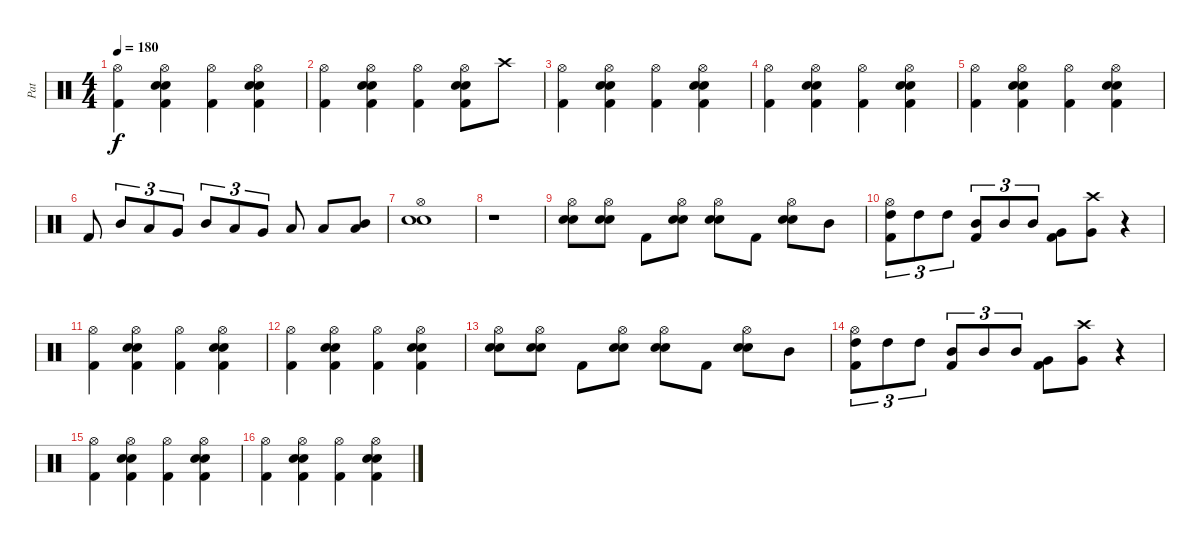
\track ("Pat" "Pat") {instrument percussion}
\staff {score}
\articulation defaults
\ts (4 4)
\tempo 180
\clef neutral
\ks c
("Hi-Hat (open)" "Kick (hit) 2").4{dy f} ("Hi-Hat (open)" "Snare (hit) 2" "Electric Snare (hit)" "Kick (hit) 2").4 ("Hi-Hat (open)" "Kick (hit) 2").4 ("Hi-Hat (open)" "Snare (hit) 2" "Electric Snare (hit)" "Kick (hit) 2").4 |
("Hi-Hat (open)" "Kick (hit) 2").4 ("Hi-Hat (open)" "Snare (hit) 2" "Electric Snare (hit)" "Kick (hit) 2").4 ("Hi-Hat (open)" "Kick (hit) 2").4 ("Hi-Hat (open)" "Snare (hit) 2" "Electric Snare (hit)" "Kick (hit) 2").8 "Crash high (hit)".8 |
("Hi-Hat (open)" "Kick (hit) 2").4 ("Hi-Hat (open)" "Snare (hit) 2" "Electric Snare (hit)" "Kick (hit) 2").4 ("Hi-Hat (open)" "Kick (hit) 2").4 ("Hi-Hat (open)" "Snare (hit) 2" "Electric Snare (hit)" "Kick (hit) 2").4 |
("Hi-Hat (open)" "Kick (hit) 2").4 ("Hi-Hat (open)" "Snare (hit) 2" "Electric Snare (hit)" "Kick (hit) 2").4 ("Hi-Hat (open)" "Kick (hit) 2").4 ("Hi-Hat (open)" "Snare (hit) 2" "Electric Snare (hit)" "Kick (hit) 2").4 |
("Hi-Hat (open)" "Kick (hit) 2").4 ("Hi-Hat (open)" "Snare (hit) 2" "Electric Snare (hit)" "Kick (hit) 2").4 ("Hi-Hat (open)" "Kick (hit) 2").4 ("Hi-Hat (open)" "Snare (hit) 2" "Electric Snare (hit)" "Kick (hit) 2").4 |
"Kick (hit) 2".8 "Mid Tom (hit)".8{tu (3 2)} "Low Tom (hit)".8{tu (3 2)} "Very Low Tom (hit)".8{tu (3 2)} "Mid Tom (hit)".8{tu (3 2)} "Low Tom (hit)".8{tu (3 2)} "Very Low Tom (hit)".8{tu (3 2)} "Low Tom (hit)".8 "Low Tom (hit)".8 ("Mid Tom (hit)" "Low Tom (hit)").8 |
("Snare (hit) 2" "Electric Snare (hit)" "Hi-Hat (open)").1 |
r.1 |
("Snare (hit) 2" "Electric Snare (hit)" "Hi-Hat (open)").8 ("Snare (hit) 2" "Electric Snare (hit)" "Hi-Hat (open)").8 "Kick (hit) 2".8 ("Snare (hit) 2" "Electric Snare (hit)" "Hi-Hat (open)").8 ("Snare (hit) 2" "Electric Snare (hit)" "Hi-Hat (open)").8 "Kick (hit) 2".8 ("Snare (hit) 2" "Electric Snare (hit)" "Hi-Hat (open)").8 "Mid Tom (hit)".8 |
("High Tom (hit)" "Hi-Hat (open)" "Kick (hit) 2").8{tu (3 2)} "High Tom (hit)".8{tu (3 2)} "High Tom (hit)".8{tu (3 2)} ("Mid Tom (hit)" "Kick (hit) 2").8{tu (3 2)} "Mid Tom (hit)".8{tu (3 2)} "Mid Tom (hit)".8{tu (3 2)} ("Very Low Tom (hit)" "Kick (hit) 2").8 ("Crash high (hit)" "Very Low Tom (hit)").8 r.4 |
("Hi-Hat (open)" "Kick (hit) 2").4 ("Hi-Hat (open)" "Snare (hit) 2" "Electric Snare (hit)" "Kick (hit) 2").4 ("Hi-Hat (open)" "Kick (hit) 2").4 ("Hi-Hat (open)" "Snare (hit) 2" "Electric Snare (hit)" "Kick (hit) 2").4 |
("Hi-Hat (open)" "Kick (hit) 2").4 ("Hi-Hat (open)" "Snare (hit) 2" "Electric Snare (hit)" "Kick (hit) 2").4 ("Hi-Hat (open)" "Kick (hit) 2").4 ("Hi-Hat (open)" "Snare (hit) 2" "Electric Snare (hit)" "Kick (hit) 2").4 |
("Snare (hit) 2" "Electric Snare (hit)" "Hi-Hat (open)").8 ("Snare (hit) 2" "Electric Snare (hit)" "Hi-Hat (open)").8 "Kick (hit) 2".8 ("Snare (hit) 2" "Electric Snare (hit)" "Hi-Hat (open)").8 ("Snare (hit) 2" "Electric Snare (hit)" "Hi-Hat (open)").8 "Kick (hit) 2".8 ("Snare (hit) 2" "Electric Snare (hit)" "Hi-Hat (open)").8 "Mid Tom (hit)".8 |
("High Tom (hit)" "Hi-Hat (open)" "Kick (hit) 2").8{tu (3 2)} "High Tom (hit)".8{tu (3 2)} "High Tom (hit)".8{tu (3 2)} ("Mid Tom (hit)" "Kick (hit) 2").8{tu (3 2)} "Mid Tom (hit)".8{tu (3 2)} "Mid Tom (hit)".8{tu (3 2)} ("Very Low Tom (hit)" "Kick (hit) 2").8 ("Crash high (hit)" "Very Low Tom (hit)").8 r.4 |
("Hi-Hat (open)" "Kick (hit) 2").4 ("Hi-Hat (open)" "Snare (hit) 2" "Electric Snare (hit)" "Kick (hit) 2").4 ("Hi-Hat (open)" "Kick (hit) 2").4 ("Hi-Hat (open)" "Snare (hit) 2" "Electric Snare (hit)" "Kick (hit) 2").4 |
("Hi-Hat (open)" "Kick (hit) 2").4 ("Hi-Hat (open)" "Snare (hit) 2" "Electric Snare (hit)" "Kick (hit) 2").4 ("Hi-Hat (open)" "Kick (hit) 2").4 ("Hi-Hat (open)" "Snare (hit) 2" "Electric Snare (hit)" "Kick (hit) 2").4
